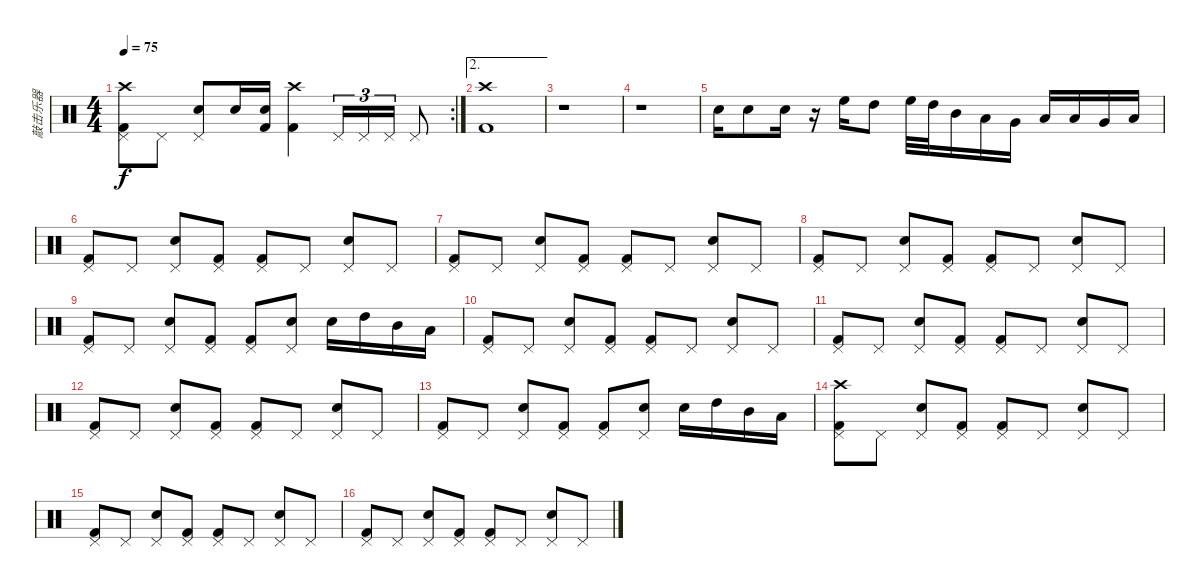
\track ("敲击乐器" "敲击乐器") {instrument percussion}
\staff {score}
\articulation defaults
\rc 2
\ts (4 4)
\tempo 75
\clef neutral
\ks c
("Crash high (hit)" "Pedal Hi-Hat (hit)" "Kick (hit) 2").8{dy f} "Pedal Hi-Hat (hit)".8 ("Pedal Hi-Hat (hit)" "Metronome (bell)").8 "Metronome (bell)".16 ("Metronome (bell)" "Kick (hit) 2").16 ("Crash high (hit)" "Kick (hit) 2").4 "Pedal Hi-Hat (hit)".16{tu (3 2)} "Pedal Hi-Hat (hit)".16{tu (3 2)} "Pedal Hi-Hat (hit)".16{tu (3 2)} "Pedal Hi-Hat (hit)".8 |
\ae 2
("Crash high (hit)" "Kick (hit) 2").1 |
r.1 |
r.1 |
"Metronome (bell)".16 "Metronome (bell)".8 "Metronome (bell)".16 r.16 "High Floor Tom (hit)".16 "High Tom (hit)".8 "High Floor Tom (hit)".32 "High Tom (hit)".32 "Mid Tom (hit)".16 "Low Tom (hit)".16 "Very Low Tom (hit)".16 "Low Tom (hit)".16 "Low Tom (hit)".16 "Very Low Tom (hit)".16 "Low Floor Tom (hit)".16 |
("Pedal Hi-Hat (hit)" "Kick (hit) 2").8 "Pedal Hi-Hat (hit)".8 ("Pedal Hi-Hat (hit)" "Metronome (bell)").8 ("Pedal Hi-Hat (hit)" "Kick (hit) 2").8 ("Pedal Hi-Hat (hit)" "Kick (hit) 2").8 "Pedal Hi-Hat (hit)".8 ("Pedal Hi-Hat (hit)" "Metronome (bell)").8 "Pedal Hi-Hat (hit)".8 |
("Pedal Hi-Hat (hit)" "Kick (hit) 2").8 "Pedal Hi-Hat (hit)".8 ("Pedal Hi-Hat (hit)" "Metronome (bell)").8 ("Pedal Hi-Hat (hit)" "Kick (hit) 2").8 ("Pedal Hi-Hat (hit)" "Kick (hit) 2").8 "Pedal Hi-Hat (hit)".8 ("Pedal Hi-Hat (hit)" "Metronome (bell)").8 "Pedal Hi-Hat (hit)".8 |
("Pedal Hi-Hat (hit)" "Kick (hit) 2").8 "Pedal Hi-Hat (hit)".8 ("Pedal Hi-Hat (hit)" "Metronome (bell)").8 ("Pedal Hi-Hat (hit)" "Kick (hit) 2").8 ("Pedal Hi-Hat (hit)" "Kick (hit) 2").8 "Pedal Hi-Hat (hit)".8 ("Pedal Hi-Hat (hit)" "Metronome (bell)").8 "Pedal Hi-Hat (hit)".8 |
("Pedal Hi-Hat (hit)" "Kick (hit) 2").8 "Pedal Hi-Hat (hit)".8 ("Pedal Hi-Hat (hit)" "Metronome (bell)").8 ("Pedal Hi-Hat (hit)" "Kick (hit) 2").8 ("Pedal Hi-Hat (hit)" "Kick (hit) 2").8 ("Pedal Hi-Hat (hit)" "Metronome (bell)").8 "Metronome (bell)".16 "High Tom (hit)".16 "Mid Tom (hit)".16 "Low Tom (hit)".16 |
("Pedal Hi-Hat (hit)" "Kick (hit) 2").8 "Pedal Hi-Hat (hit)".8 ("Pedal Hi-Hat (hit)" "Metronome (bell)").8 ("Pedal Hi-Hat (hit)" "Kick (hit) 2").8 ("Pedal Hi-Hat (hit)" "Kick (hit) 2").8 "Pedal Hi-Hat (hit)".8 ("Pedal Hi-Hat (hit)" "Metronome (bell)").8 "Pedal Hi-Hat (hit)".8 |
("Pedal Hi-Hat (hit)" "Kick (hit) 2").8 "Pedal Hi-Hat (hit)".8 ("Pedal Hi-Hat (hit)" "Metronome (bell)").8 ("Pedal Hi-Hat (hit)" "Kick (hit) 2").8 ("Pedal Hi-Hat (hit)" "Kick (hit) 2").8 "Pedal Hi-Hat (hit)".8 ("Pedal Hi-Hat (hit)" "Metronome (bell)").8 "Pedal Hi-Hat (hit)".8 |
("Pedal Hi-Hat (hit)" "Kick (hit) 2").8 "Pedal Hi-Hat (hit)".8 ("Pedal Hi-Hat (hit)" "Metronome (bell)").8 ("Pedal Hi-Hat (hit)" "Kick (hit) 2").8 ("Pedal Hi-Hat (hit)" "Kick (hit) 2").8 "Pedal Hi-Hat (hit)".8 ("Pedal Hi-Hat (hit)" "Metronome (bell)").8 "Pedal Hi-Hat (hit)".8 |
("Pedal Hi-Hat (hit)" "Kick (hit) 2").8 "Pedal Hi-Hat (hit)".8 ("Pedal Hi-Hat (hit)" "Metronome (bell)").8 ("Pedal Hi-Hat (hit)" "Kick (hit) 2").8 ("Pedal Hi-Hat (hit)" "Kick (hit) 2").8 ("Pedal Hi-Hat (hit)" "Metronome (bell)").8 "Metronome (bell)".16 "High Tom (hit)".16 "Mid Tom (hit)".16 "Low Tom (hit)".16 |
("Crash high (hit)" "Pedal Hi-Hat (hit)" "Kick (hit) 2").8 "Pedal Hi-Hat (hit)".8 ("Pedal Hi-Hat (hit)" "Metronome (bell)").8 ("Pedal Hi-Hat (hit)" "Kick (hit) 2").8 ("Pedal Hi-Hat (hit)" "Kick (hit) 2").8 "Pedal Hi-Hat (hit)".8 ("Pedal Hi-Hat (hit)" "Metronome (bell)").8 "Pedal Hi-Hat (hit)".8 |
("Pedal Hi-Hat (hit)" "Kick (hit) 2").8 "Pedal Hi-Hat (hit)".8 ("Pedal Hi-Hat (hit)" "Metronome (bell)").8 ("Pedal Hi-Hat (hit)" "Kick (hit) 2").8 ("Pedal Hi-Hat (hit)" "Kick (hit) 2").8 "Pedal Hi-Hat (hit)".8 ("Pedal Hi-Hat (hit)" "Metronome (bell)").8 "Pedal Hi-Hat (hit)".8 |
("Pedal Hi-Hat (hit)" "Kick (hit) 2").8 "Pedal Hi-Hat (hit)".8 ("Pedal Hi-Hat (hit)" "Metronome (bell)").8 ("Pedal Hi-Hat (hit)" "Kick (hit) 2").8 ("Pedal Hi-Hat (hit)" "Kick (hit) 2").8 "Pedal Hi-Hat (hit)".8 ("Pedal Hi-Hat (hit)" "Metronome (bell)").8 "Pedal Hi-Hat (hit)".8
